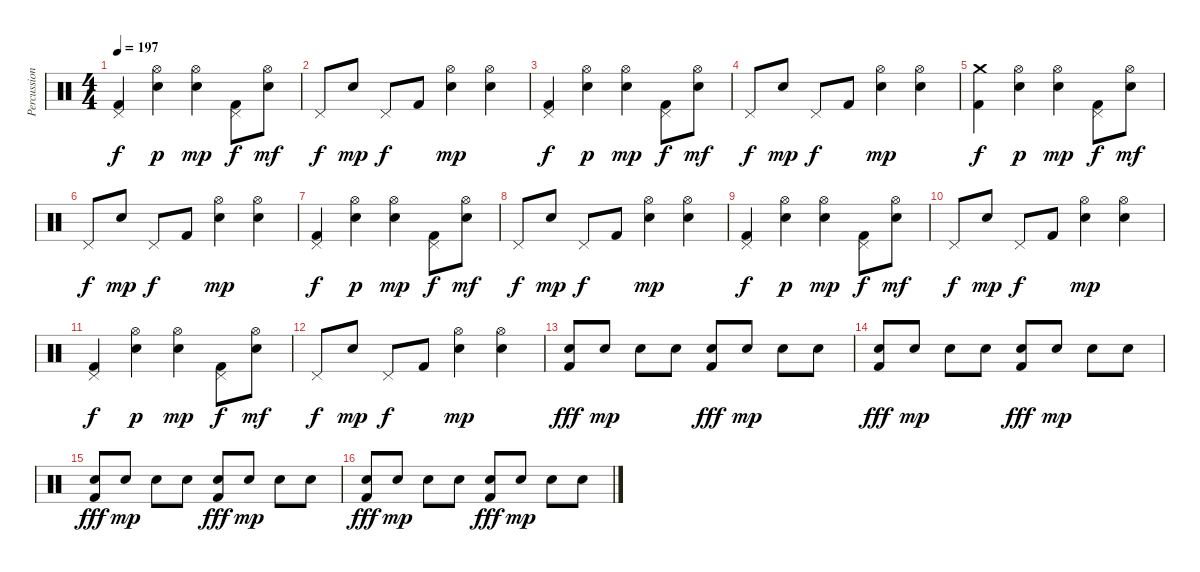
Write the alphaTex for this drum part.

\track ("Percussion" "Percussion") {instrument percussion}
\staff {score}
\articulation defaults
\ts (4 4)
\tempo 197
\clef neutral
\ks c
("Pedal Hi-Hat (hit)" "Kick (hit) 2").4{dy f} ("Hi-Hat (open)" "Snare (hit) 2").4{dy p} ("Hi-Hat (open)" "Snare (hit) 2").4{dy mp} ("Pedal Hi-Hat (hit)" "Kick (hit) 2").8{dy f} ("Hi-Hat (open)" "Snare (hit) 2").8{dy mf} |
"Pedal Hi-Hat (hit)".8{dy f} "Snare (hit) 2".8{dy mp} "Pedal Hi-Hat (hit)".8{dy f} "Kick (hit) 2".8 ("Hi-Hat (open)" "Snare (hit) 2").4{dy mp} ("Hi-Hat (open)" "Snare (hit) 2").4 |
("Pedal Hi-Hat (hit)" "Kick (hit) 2").4{dy f} ("Hi-Hat (open)" "Snare (hit) 2").4{dy p} ("Hi-Hat (open)" "Snare (hit) 2").4{dy mp} ("Pedal Hi-Hat (hit)" "Kick (hit) 2").8{dy f} ("Hi-Hat (open)" "Snare (hit) 2").8{dy mf} |
"Pedal Hi-Hat (hit)".8{dy f} "Snare (hit) 2".8{dy mp} "Pedal Hi-Hat (hit)".8{dy f} "Kick (hit) 2".8 ("Hi-Hat (open)" "Snare (hit) 2").4{dy mp} ("Hi-Hat (open)" "Snare (hit) 2").4 |
("Crash medium (hit)" "Kick (hit) 2").4{dy f} ("Hi-Hat (open)" "Snare (hit) 2").4{dy p} ("Hi-Hat (open)" "Snare (hit) 2").4{dy mp} ("Pedal Hi-Hat (hit)" "Kick (hit) 2").8{dy f} ("Hi-Hat (open)" "Snare (hit) 2").8{dy mf} |
"Pedal Hi-Hat (hit)".8{dy f} "Snare (hit) 2".8{dy mp} "Pedal Hi-Hat (hit)".8{dy f} "Kick (hit) 2".8 ("Hi-Hat (open)" "Snare (hit) 2").4{dy mp} ("Hi-Hat (open)" "Snare (hit) 2").4 |
("Pedal Hi-Hat (hit)" "Kick (hit) 2").4{dy f} ("Hi-Hat (open)" "Snare (hit) 2").4{dy p} ("Hi-Hat (open)" "Snare (hit) 2").4{dy mp} ("Pedal Hi-Hat (hit)" "Kick (hit) 2").8{dy f} ("Hi-Hat (open)" "Snare (hit) 2").8{dy mf} |
"Pedal Hi-Hat (hit)".8{dy f} "Snare (hit) 2".8{dy mp} "Pedal Hi-Hat (hit)".8{dy f} "Kick (hit) 2".8 ("Hi-Hat (open)" "Snare (hit) 2").4{dy mp} ("Hi-Hat (open)" "Snare (hit) 2").4 |
("Pedal Hi-Hat (hit)" "Kick (hit) 2").4{dy f} ("Hi-Hat (open)" "Snare (hit) 2").4{dy p} ("Hi-Hat (open)" "Snare (hit) 2").4{dy mp} ("Pedal Hi-Hat (hit)" "Kick (hit) 2").8{dy f} ("Hi-Hat (open)" "Snare (hit) 2").8{dy mf} |
"Pedal Hi-Hat (hit)".8{dy f} "Snare (hit) 2".8{dy mp} "Pedal Hi-Hat (hit)".8{dy f} "Kick (hit) 2".8 ("Hi-Hat (open)" "Snare (hit) 2").4{dy mp} ("Hi-Hat (open)" "Snare (hit) 2").4 |
("Pedal Hi-Hat (hit)" "Kick (hit) 2").4{dy f} ("Hi-Hat (open)" "Snare (hit) 2").4{dy p} ("Hi-Hat (open)" "Snare (hit) 2").4{dy mp} ("Pedal Hi-Hat (hit)" "Kick (hit) 2").8{dy f} ("Hi-Hat (open)" "Snare (hit) 2").8{dy mf} |
"Pedal Hi-Hat (hit)".8{dy f} "Snare (hit) 2".8{dy mp} "Pedal Hi-Hat (hit)".8{dy f} "Kick (hit) 2".8 ("Hi-Hat (open)" "Snare (hit) 2").4{dy mp} ("Hi-Hat (open)" "Snare (hit) 2").4 |
("Snare (hit) 2" "Kick (hit) 2").8{dy fff} "Snare (hit) 2".8{dy mp} "Snare (hit) 2".8 "Snare (hit) 2".8 ("Snare (hit) 2" "Kick (hit) 2").8{dy fff} "Snare (hit) 2".8{dy mp} "Snare (hit) 2".8 "Snare (hit) 2".8 |
("Snare (hit) 2" "Kick (hit) 2").8{dy fff} "Snare (hit) 2".8{dy mp} "Snare (hit) 2".8 "Snare (hit) 2".8 ("Snare (hit) 2" "Kick (hit) 2").8{dy fff} "Snare (hit) 2".8{dy mp} "Snare (hit) 2".8 "Snare (hit) 2".8 |
("Snare (hit) 2" "Kick (hit) 2").8{dy fff} "Snare (hit) 2".8{dy mp} "Snare (hit) 2".8 "Snare (hit) 2".8 ("Snare (hit) 2" "Kick (hit) 2").8{dy fff} "Snare (hit) 2".8{dy mp} "Snare (hit) 2".8 "Snare (hit) 2".8 |
("Snare (hit) 2" "Kick (hit) 2").8{dy fff} "Snare (hit) 2".8{dy mp} "Snare (hit) 2".8 "Snare (hit) 2".8 ("Snare (hit) 2" "Kick (hit) 2").8{dy fff} "Snare (hit) 2".8{dy mp} "Snare (hit) 2".8 "Snare (hit) 2".8
